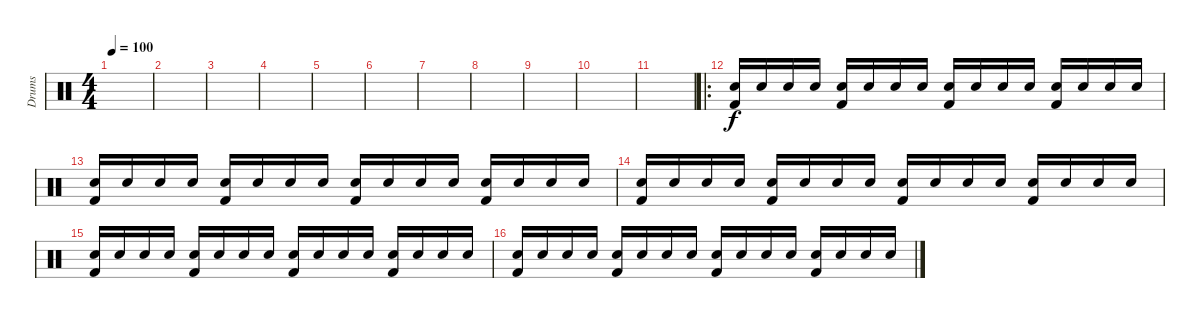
\track ("Drums" "Drums") {instrument percussion}
\staff {score}
\articulation defaults
\ts (4 4)
\tempo 100
\clef neutral
\ks c
|
|
|
|
|
|
|
|
|
|
|
\ro
("Kick (hit) 2" "Electric Snare (hit)").16 "Electric Snare (hit)".16 "Electric Snare (hit)".16 "Electric Snare (hit)".16 ("Kick (hit) 2" "Electric Snare (hit)").16 "Electric Snare (hit)".16 "Electric Snare (hit)".16 "Electric Snare (hit)".16 ("Kick (hit) 2" "Electric Snare (hit)").16 "Electric Snare (hit)".16 "Electric Snare (hit)".16 "Electric Snare (hit)".16 ("Kick (hit) 2" "Electric Snare (hit)").16 "Electric Snare (hit)".16 "Electric Snare (hit)".16 "Electric Snare (hit)".16 |
("Kick (hit) 2" "Electric Snare (hit)").16 "Electric Snare (hit)".16 "Electric Snare (hit)".16 "Electric Snare (hit)".16 ("Kick (hit) 2" "Electric Snare (hit)").16 "Electric Snare (hit)".16 "Electric Snare (hit)".16 "Electric Snare (hit)".16 ("Kick (hit) 2" "Electric Snare (hit)").16 "Electric Snare (hit)".16 "Electric Snare (hit)".16 "Electric Snare (hit)".16 ("Kick (hit) 2" "Electric Snare (hit)").16 "Electric Snare (hit)".16 "Electric Snare (hit)".16 "Electric Snare (hit)".16 |
("Kick (hit) 2" "Electric Snare (hit)").16 "Electric Snare (hit)".16 "Electric Snare (hit)".16 "Electric Snare (hit)".16 ("Kick (hit) 2" "Electric Snare (hit)").16 "Electric Snare (hit)".16 "Electric Snare (hit)".16 "Electric Snare (hit)".16 ("Kick (hit) 2" "Electric Snare (hit)").16 "Electric Snare (hit)".16 "Electric Snare (hit)".16 "Electric Snare (hit)".16 ("Kick (hit) 2" "Electric Snare (hit)").16 "Electric Snare (hit)".16 "Electric Snare (hit)".16 "Electric Snare (hit)".16 |
("Kick (hit) 2" "Electric Snare (hit)").16 "Electric Snare (hit)".16 "Electric Snare (hit)".16 "Electric Snare (hit)".16 ("Kick (hit) 2" "Electric Snare (hit)").16 "Electric Snare (hit)".16 "Electric Snare (hit)".16 "Electric Snare (hit)".16 ("Kick (hit) 2" "Electric Snare (hit)").16 "Electric Snare (hit)".16 "Electric Snare (hit)".16 "Electric Snare (hit)".16 ("Kick (hit) 2" "Electric Snare (hit)").16 "Electric Snare (hit)".16 "Electric Snare (hit)".16 "Electric Snare (hit)".16 |
("Kick (hit) 2" "Electric Snare (hit)").16 "Electric Snare (hit)".16 "Electric Snare (hit)".16 "Electric Snare (hit)".16 ("Kick (hit) 2" "Electric Snare (hit)").16 "Electric Snare (hit)".16 "Electric Snare (hit)".16 "Electric Snare (hit)".16 ("Kick (hit) 2" "Electric Snare (hit)").16 "Electric Snare (hit)".16 "Electric Snare (hit)".16 "Electric Snare (hit)".16 ("Kick (hit) 2" "Electric Snare (hit)").16 "Electric Snare (hit)".16 "Electric Snare (hit)".16 "Electric Snare (hit)".16
